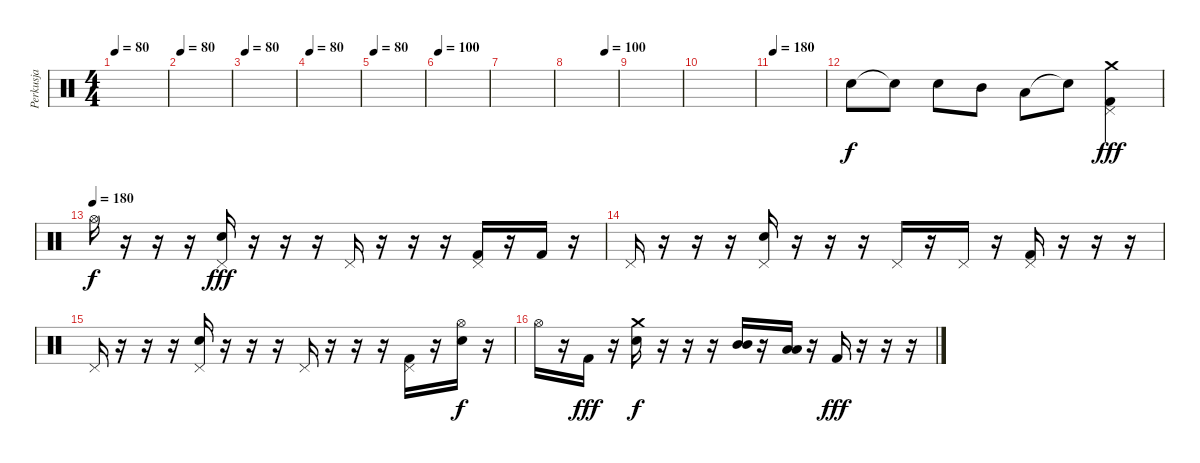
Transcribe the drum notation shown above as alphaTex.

\track ("Perkusja" "Perkusja") {instrument percussion}
\staff {score}
\articulation defaults
\ts (4 4)
\tempo 80
\clef neutral
\ks c
|
\tempo 80
|
\tempo 80
|
\tempo 80
|
\tempo 80
|
\tempo 100
|
|
\tempo (100 0.75)
|
|
|
\tempo 200
\tempo 180
|
"Snare (hit) 2".8 "Snare (hit)"{t}.8 "Snare (hit) 2".8 "Mid Tom (hit)".8 "Low Tom (hit)".8 "Snare (hit)"{t}.8 ("Crash medium (hit)" "Pedal Hi-Hat (hit)" "Kick (hit) 2").4{dy fff} |
\tempo (180)
"Hi-Hat (open)".16{dy f} r.16 r.16 r.16 ("Snare (hit) 2" "Pedal Hi-Hat (hit)").16{dy fff} r.16 r.16 r.16 "Pedal Hi-Hat (hit)".16 r.16 r.16 r.16 ("Pedal Hi-Hat (hit)" "Kick (hit) 2").16 r.16 "Kick (hit) 2".16 r.16 |
"Pedal Hi-Hat (hit)".16 r.16 r.16 r.16 ("Snare (hit) 2" "Pedal Hi-Hat (hit)").16 r.16 r.16 r.16 "Pedal Hi-Hat (hit)".16 r.16 "Pedal Hi-Hat (hit)".16 r.16 ("Pedal Hi-Hat (hit)" "Kick (hit) 2").16 r.16 r.16 r.16 |
"Pedal Hi-Hat (hit)".16 r.16 r.16 r.16 ("Snare (hit) 2" "Pedal Hi-Hat (hit)").16 r.16 r.16 r.16 "Pedal Hi-Hat (hit)".16 r.16 r.16 r.16 ("Pedal Hi-Hat (hit)" "Kick (hit) 2").16 r.16 ("Snare (hit) 2" "Hi-Hat (open)").16{dy f} r.16 |
"Hi-Hat (open)".16 r.16 "Kick (hit) 2".16{dy fff} r.16 ("Snare (hit) 2" "Crash medium (hit)").16{dy f} r.16 r.16 r.16 ("Mid Tom (hit)" "Mid Tom (hit)").16 r.16 ("Low Tom (hit)" "Low Tom (hit)").16 r.16 "Kick (hit) 2".16{dy fff} r.16 r.16 r.16
